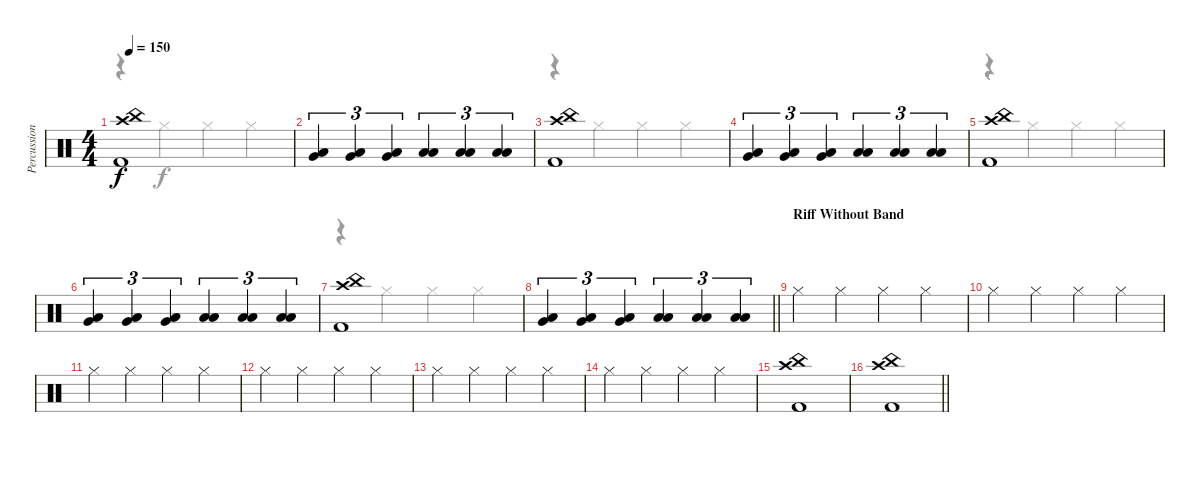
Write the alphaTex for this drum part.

\track ("Percussion" "Percussion") {instrument percussion}
\staff {score}
\articulation defaults
\voice
\ts (4 4)
\tempo 150
\clef neutral
\ks c
("China (hit)" "Kick (hit) 2" "Crash high (hit)").1{dy f} |
("Very Low Tom (hit)" "Low Floor Tom (hit)").4{tu (3 2)} ("Very Low Tom (hit)" "Low Floor Tom (hit)").4{tu (3 2)} ("Very Low Tom (hit)" "Low Floor Tom (hit)").4{tu (3 2)} ("Low Floor Tom (hit)" "Low Tom (hit)").4{tu (3 2)} ("Low Floor Tom (hit)" "Low Tom (hit)").4{tu (3 2)} ("Low Floor Tom (hit)" "Low Tom (hit)").4{tu (3 2)} |
("China (hit)" "Kick (hit) 2" "Crash high (hit)").1 |
("Very Low Tom (hit)" "Low Floor Tom (hit)").4{tu (3 2)} ("Very Low Tom (hit)" "Low Floor Tom (hit)").4{tu (3 2)} ("Very Low Tom (hit)" "Low Floor Tom (hit)").4{tu (3 2)} ("Low Floor Tom (hit)" "Low Tom (hit)").4{tu (3 2)} ("Low Floor Tom (hit)" "Low Tom (hit)").4{tu (3 2)} ("Low Floor Tom (hit)" "Low Tom (hit)").4{tu (3 2)} |
("China (hit)" "Kick (hit) 2" "Crash high (hit)").1 |
("Very Low Tom (hit)" "Low Floor Tom (hit)").4{tu (3 2)} ("Very Low Tom (hit)" "Low Floor Tom (hit)").4{tu (3 2)} ("Very Low Tom (hit)" "Low Floor Tom (hit)").4{tu (3 2)} ("Low Floor Tom (hit)" "Low Tom (hit)").4{tu (3 2)} ("Low Floor Tom (hit)" "Low Tom (hit)").4{tu (3 2)} ("Low Floor Tom (hit)" "Low Tom (hit)").4{tu (3 2)} |
("China (hit)" "Kick (hit) 2" "Crash high (hit)").1 |
\barLineRight lightlight
("Very Low Tom (hit)" "Low Floor Tom (hit)").4{tu (3 2)} ("Very Low Tom (hit)" "Low Floor Tom (hit)").4{tu (3 2)} ("Very Low Tom (hit)" "Low Floor Tom (hit)").4{tu (3 2)} ("Low Floor Tom (hit)" "Low Tom (hit)").4{tu (3 2)} ("Low Floor Tom (hit)" "Low Tom (hit)").4{tu (3 2)} ("Low Floor Tom (hit)" "Low Tom (hit)").4{tu (3 2)} |
\section ("" "Riff Without Band")
"Hi-Hat (closed)".4 "Hi-Hat (closed)".4 "Hi-Hat (closed)".4 "Hi-Hat (closed)".4 |
"Hi-Hat (closed)".4 "Hi-Hat (closed)".4 "Hi-Hat (closed)".4 "Hi-Hat (closed)".4 |
"Hi-Hat (closed)".4 "Hi-Hat (closed)".4 "Hi-Hat (closed)".4 "Hi-Hat (closed)".4 |
"Hi-Hat (closed)".4 "Hi-Hat (closed)".4 "Hi-Hat (closed)".4 "Hi-Hat (closed)".4 |
"Hi-Hat (closed)".4 "Hi-Hat (closed)".4 "Hi-Hat (closed)".4 "Hi-Hat (closed)".4 |
"Hi-Hat (closed)".4 "Hi-Hat (closed)".4 "Hi-Hat (closed)".4 "Hi-Hat (closed)".4 |
("China (hit)" "Kick (hit) 2" "Crash high (hit)").1 |
\barLineRight lightlight
("China (hit)" "Kick (hit) 2" "Crash high (hit)").1
\voice
\clef neutral
\ottava regular
\simile none
\ks c
r.4{dy f} "Hi-Hat (closed)".4 "Hi-Hat (closed)".4 "Hi-Hat (closed)".4 |
|
r.4 "Hi-Hat (closed)".4 "Hi-Hat (closed)".4 "Hi-Hat (closed)".4 |
|
r.4 "Hi-Hat (closed)".4 "Hi-Hat (closed)".4 "Hi-Hat (closed)".4 |
|
r.4 "Hi-Hat (closed)".4 "Hi-Hat (closed)".4 "Hi-Hat (closed)".4 |
\barLineRight lightlight
|
|
|
|
|
|
|
|
\barLineRight lightlight
